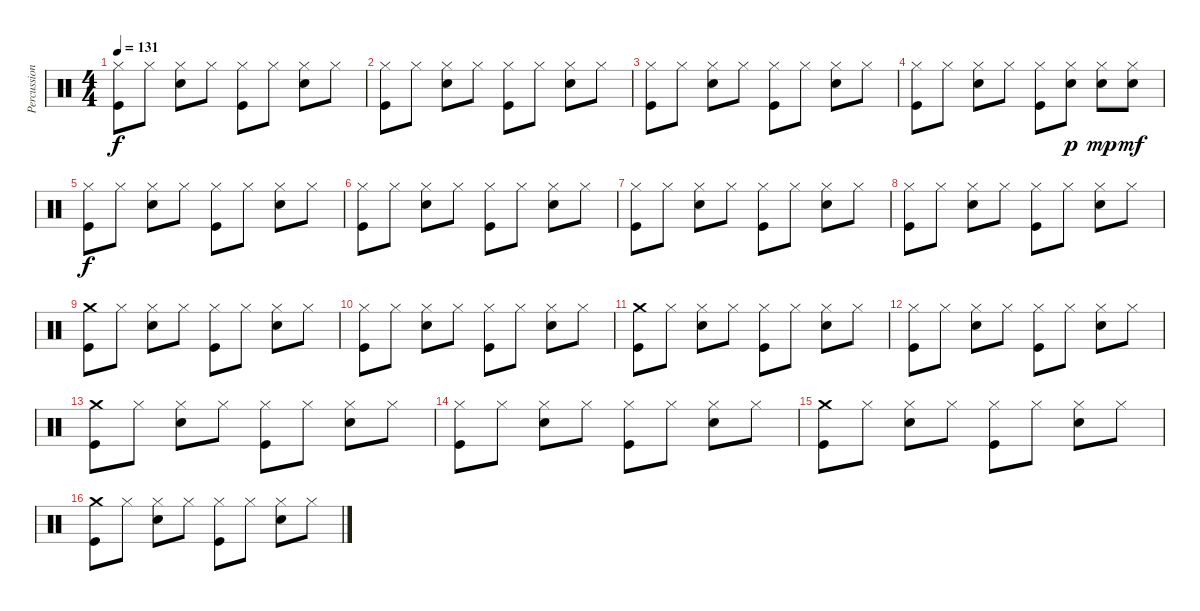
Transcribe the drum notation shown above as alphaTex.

\track ("Percussions" "Percussion") {instrument percussion}
\staff {score}
\articulation defaults
\ts (4 4)
\tempo 131
\clef neutral
\ks c
("Hi-Hat (closed)" "Kick (hit)").8{dy f} "Hi-Hat (closed)".8 ("Hi-Hat (closed)" "Snare (hit) 2").8 "Hi-Hat (closed)".8 ("Hi-Hat (closed)" "Kick (hit)").8 "Hi-Hat (closed)".8 ("Hi-Hat (closed)" "Snare (hit) 2").8 "Hi-Hat (closed)".8 |
("Hi-Hat (closed)" "Kick (hit)").8 "Hi-Hat (closed)".8 ("Hi-Hat (closed)" "Snare (hit) 2").8 "Hi-Hat (closed)".8 ("Hi-Hat (closed)" "Kick (hit)").8 "Hi-Hat (closed)".8 ("Hi-Hat (closed)" "Snare (hit) 2").8 "Hi-Hat (closed)".8 |
("Hi-Hat (closed)" "Kick (hit)").8 "Hi-Hat (closed)".8 ("Hi-Hat (closed)" "Snare (hit) 2").8 "Hi-Hat (closed)".8 ("Hi-Hat (closed)" "Kick (hit)").8 "Hi-Hat (closed)".8 ("Hi-Hat (closed)" "Snare (hit) 2").8 "Hi-Hat (closed)".8 |
("Hi-Hat (closed)" "Kick (hit)").8 "Hi-Hat (closed)".8 ("Hi-Hat (closed)" "Snare (hit) 2").8 "Hi-Hat (closed)".8 ("Hi-Hat (closed)" "Kick (hit)").8 ("Hi-Hat (closed)" "Snare (hit) 2").8{dy p} ("Hi-Hat (closed)" "Snare (hit) 2").8{dy mp} ("Hi-Hat (closed)" "Snare (hit) 2").8{dy mf} |
("Hi-Hat (closed)" "Kick (hit)").8{dy f} "Hi-Hat (closed)".8 ("Hi-Hat (closed)" "Snare (hit) 2").8 "Hi-Hat (closed)".8 ("Hi-Hat (closed)" "Kick (hit)").8 "Hi-Hat (closed)".8 ("Hi-Hat (closed)" "Snare (hit) 2").8 "Hi-Hat (closed)".8 |
("Hi-Hat (closed)" "Kick (hit)").8 "Hi-Hat (closed)".8 ("Hi-Hat (closed)" "Snare (hit) 2").8 "Hi-Hat (closed)".8 ("Hi-Hat (closed)" "Kick (hit)").8 "Hi-Hat (closed)".8 ("Hi-Hat (closed)" "Snare (hit) 2").8 "Hi-Hat (closed)".8 |
("Hi-Hat (closed)" "Kick (hit)").8 "Hi-Hat (closed)".8 ("Hi-Hat (closed)" "Snare (hit) 2").8 "Hi-Hat (closed)".8 ("Hi-Hat (closed)" "Kick (hit)").8 "Hi-Hat (closed)".8 ("Hi-Hat (closed)" "Snare (hit) 2").8 "Hi-Hat (closed)".8 |
("Hi-Hat (closed)" "Kick (hit)").8 "Hi-Hat (closed)".8 ("Hi-Hat (closed)" "Snare (hit) 2").8 "Hi-Hat (closed)".8 ("Hi-Hat (closed)" "Kick (hit)").8 "Hi-Hat (closed)".8 ("Hi-Hat (closed)" "Snare (hit) 2").8 "Hi-Hat (closed)".8 |
("Crash medium (hit)" "Kick (hit)").8 "Hi-Hat (closed)".8 ("Hi-Hat (closed)" "Snare (hit) 2").8 "Hi-Hat (closed)".8 ("Hi-Hat (closed)" "Kick (hit)").8 "Hi-Hat (closed)".8 ("Hi-Hat (closed)" "Snare (hit) 2").8 "Hi-Hat (closed)".8 |
("Hi-Hat (closed)" "Kick (hit)").8 "Hi-Hat (closed)".8 ("Hi-Hat (closed)" "Snare (hit) 2").8 "Hi-Hat (closed)".8 ("Hi-Hat (closed)" "Kick (hit)").8 "Hi-Hat (closed)".8 ("Hi-Hat (closed)" "Snare (hit) 2").8 "Hi-Hat (closed)".8 |
("Crash medium (hit)" "Kick (hit)").8 "Hi-Hat (closed)".8 ("Hi-Hat (closed)" "Snare (hit) 2").8 "Hi-Hat (closed)".8 ("Hi-Hat (closed)" "Kick (hit)").8 "Hi-Hat (closed)".8 ("Hi-Hat (closed)" "Snare (hit) 2").8 "Hi-Hat (closed)".8 |
("Hi-Hat (closed)" "Kick (hit)").8 "Hi-Hat (closed)".8 ("Hi-Hat (closed)" "Snare (hit) 2").8 "Hi-Hat (closed)".8 ("Hi-Hat (closed)" "Kick (hit)").8 "Hi-Hat (closed)".8 ("Hi-Hat (closed)" "Snare (hit) 2").8 "Hi-Hat (closed)".8 |
("Crash medium (hit)" "Kick (hit)").8 "Hi-Hat (closed)".8 ("Hi-Hat (closed)" "Snare (hit) 2").8 "Hi-Hat (closed)".8 ("Hi-Hat (closed)" "Kick (hit)").8 "Hi-Hat (closed)".8 ("Hi-Hat (closed)" "Snare (hit) 2").8 "Hi-Hat (closed)".8 |
("Hi-Hat (closed)" "Kick (hit)").8 "Hi-Hat (closed)".8 ("Hi-Hat (closed)" "Snare (hit) 2").8 "Hi-Hat (closed)".8 ("Hi-Hat (closed)" "Kick (hit)").8 "Hi-Hat (closed)".8 ("Hi-Hat (closed)" "Snare (hit) 2").8 "Hi-Hat (closed)".8 |
("Crash medium (hit)" "Kick (hit)").8 "Hi-Hat (closed)".8 ("Hi-Hat (closed)" "Snare (hit) 2").8 "Hi-Hat (closed)".8 ("Hi-Hat (closed)" "Kick (hit)").8 "Hi-Hat (closed)".8 ("Hi-Hat (closed)" "Snare (hit) 2").8 "Hi-Hat (closed)".8 |
("Crash medium (hit)" "Kick (hit)").8 "Hi-Hat (closed)".8 ("Hi-Hat (closed)" "Snare (hit) 2").8 "Hi-Hat (closed)".8 ("Hi-Hat (closed)" "Kick (hit)").8 "Hi-Hat (closed)".8 ("Hi-Hat (closed)" "Snare (hit) 2").8 "Hi-Hat (closed)".8
